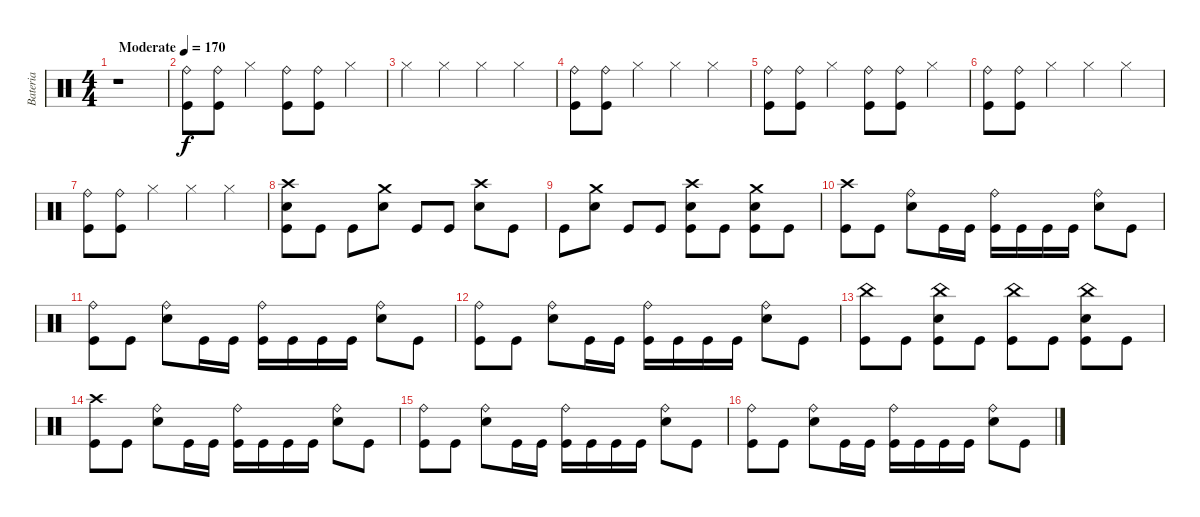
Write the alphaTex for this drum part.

\track ("Bateria" "Bateria") {instrument percussion}
\staff {score}
\articulation defaults
\ts (4 4)
\tempo (170 "Moderate")
\clef neutral
\ks c
r.1{dy f} |
("Kick (hit)" "Ride (bell)").8 ("Kick (hit)" "Ride (bell)").8 "Hi-Hat (closed)".4 ("Kick (hit)" "Ride (bell)").8 ("Kick (hit)" "Ride (bell)").8 "Hi-Hat (closed)".4 |
"Hi-Hat (closed)".4 "Hi-Hat (closed)".4 "Hi-Hat (closed)".4 "Hi-Hat (closed)".4 |
("Kick (hit)" "Ride (bell)").8 ("Kick (hit)" "Ride (bell)").8 "Hi-Hat (closed)".4 "Hi-Hat (closed)".4 "Hi-Hat (closed)".4 |
("Kick (hit)" "Ride (bell)").8 ("Kick (hit)" "Ride (bell)").8 "Hi-Hat (closed)".4 ("Kick (hit)" "Ride (bell)").8 ("Kick (hit)" "Ride (bell)").8 "Hi-Hat (closed)".4 |
("Kick (hit)" "Ride (bell)").8 ("Kick (hit)" "Ride (bell)").8 "Hi-Hat (closed)".4 "Hi-Hat (closed)".4 "Hi-Hat (closed)".4 |
("Kick (hit)" "Ride (bell)").8 ("Kick (hit)" "Ride (bell)").8 "Hi-Hat (closed)".4 "Hi-Hat (closed)".4 "Hi-Hat (closed)".4 |
("Snare (hit) 2" "Kick (hit)" "Crash high (hit)").8 "Kick (hit)".8 "Kick (hit)".8 ("Snare (hit) 2" "Crash medium (hit)").8 "Kick (hit)".8 "Kick (hit)".8 ("Snare (hit) 2" "Crash high (hit)").8 "Kick (hit)".8 |
"Kick (hit)".8 ("Snare (hit) 2" "Crash medium (hit)").8 "Kick (hit)".8 "Kick (hit)".8 ("Snare (hit) 2" "Kick (hit)" "Crash high (hit)").8 "Kick (hit)".8 ("Snare (hit) 2" "Kick (hit)" "Crash medium (hit)").8 "Kick (hit)".8 |
("Kick (hit)" "Crash high (hit)").8 "Kick (hit)".8 ("Snare (hit) 2" "Ride (bell)").8 "Kick (hit)".16 "Kick (hit)".16 ("Kick (hit)" "Ride (bell)").16 "Kick (hit)".16 "Kick (hit)".16 "Kick (hit)".16 ("Snare (hit) 2" "Ride (bell)").8 "Kick (hit)".8 |
("Kick (hit)" "Ride (bell)").8 "Kick (hit)".8 ("Snare (hit) 2" "Ride (bell)").8 "Kick (hit)".16 "Kick (hit)".16 ("Kick (hit)" "Ride (bell)").16 "Kick (hit)".16 "Kick (hit)".16 "Kick (hit)".16 ("Snare (hit) 2" "Ride (bell)").8 "Kick (hit)".8 |
("Kick (hit)" "Ride (bell)").8 "Kick (hit)".8 ("Snare (hit) 2" "Ride (bell)").8 "Kick (hit)".16 "Kick (hit)".16 ("Kick (hit)" "Ride (bell)").16 "Kick (hit)".16 "Kick (hit)".16 "Kick (hit)".16 ("Snare (hit) 2" "Ride (bell)").8 "Kick (hit)".8 |
("Kick (hit)" "China (hit)").8 "Kick (hit)".8 ("Snare (hit) 2" "Kick (hit)" "China (hit)").8 "Kick (hit)".8 ("Kick (hit)" "China (hit)").8 "Kick (hit)".8 ("Snare (hit) 2" "Kick (hit)" "China (hit)").8 "Kick (hit)".8 |
("Kick (hit)" "Crash high (hit)").8 "Kick (hit)".8 ("Snare (hit) 2" "Ride (bell)").8 "Kick (hit)".16 "Kick (hit)".16 ("Kick (hit)" "Ride (bell)").16 "Kick (hit)".16 "Kick (hit)".16 "Kick (hit)".16 ("Snare (hit) 2" "Ride (bell)").8 "Kick (hit)".8 |
("Kick (hit)" "Ride (bell)").8 "Kick (hit)".8 ("Snare (hit) 2" "Ride (bell)").8 "Kick (hit)".16 "Kick (hit)".16 ("Kick (hit)" "Ride (bell)").16 "Kick (hit)".16 "Kick (hit)".16 "Kick (hit)".16 ("Snare (hit) 2" "Ride (bell)").8 "Kick (hit)".8 |
("Kick (hit)" "Ride (bell)").8 "Kick (hit)".8 ("Snare (hit) 2" "Ride (bell)").8 "Kick (hit)".16 "Kick (hit)".16 ("Kick (hit)" "Ride (bell)").16 "Kick (hit)".16 "Kick (hit)".16 "Kick (hit)".16 ("Snare (hit) 2" "Ride (bell)").8 "Kick (hit)".8
